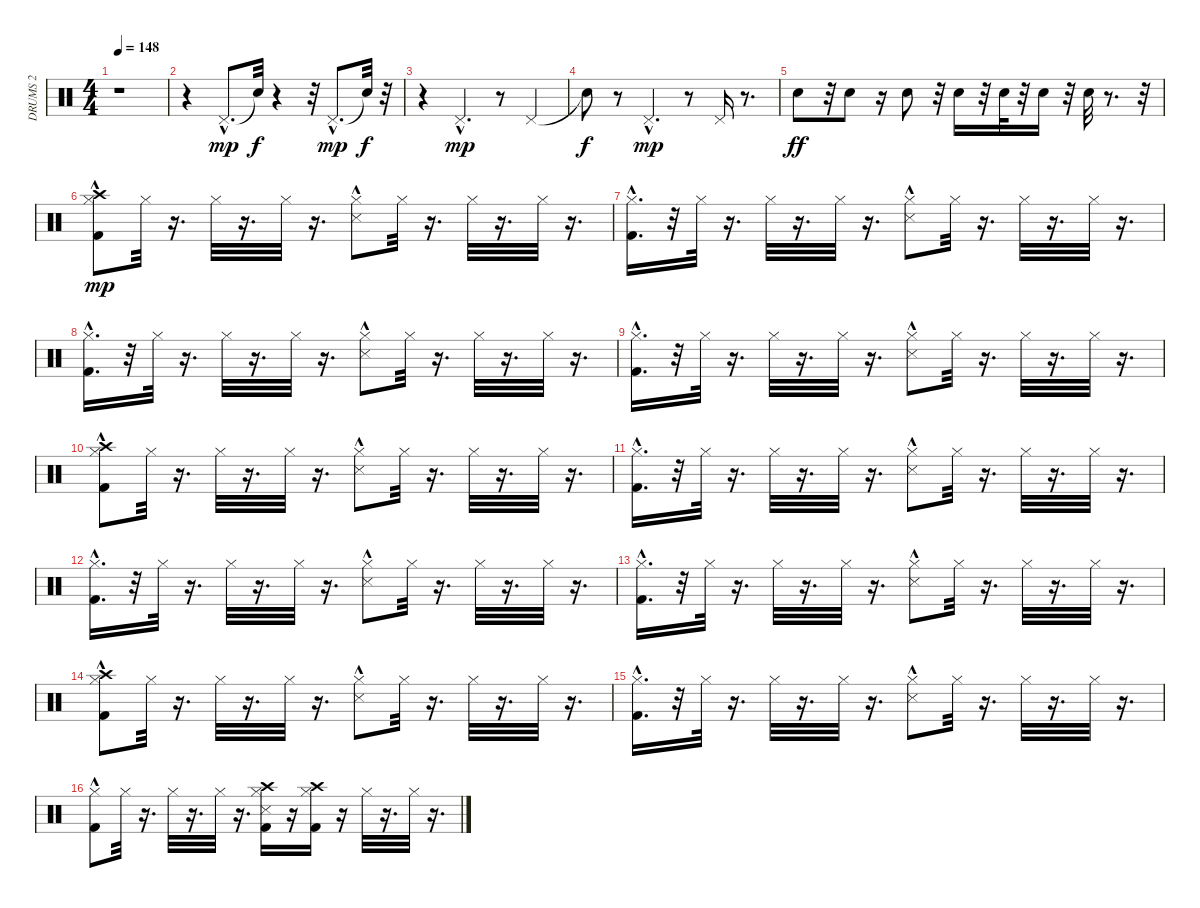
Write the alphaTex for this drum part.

\track ("DRUMS 2" "DRUMS 2") {instrument percussion}
\staff {score}
\articulation defaults
\ts (4 4)
\tempo 148
\clef neutral
\ks c
r.1{dy f} |
r.4 "Pedal Hi-Hat (hit)"{hac}.8{d dy mp} "Snare (hit)"{t}.32{dy f} r.4 r.32 "Pedal Hi-Hat (hit)"{hac}.8{d dy mp} "Snare (hit)"{t}.32{dy f} r.32 |
r.4 "Pedal Hi-Hat (hit)"{hac}.4{d dy mp} r.8 "Pedal Hi-Hat (hit)".4 |
"Snare (hit)"{t}.8{dy f} r.8 "Pedal Hi-Hat (hit)"{hac}.4{d dy mp} r.8 "Pedal Hi-Hat (hit)".16 r.8{d} |
"Snare (hit) 2".8{dy ff} r.32 "Snare (hit) 2".8 r.16 "Snare (hit) 2".8 r.32 "Snare (hit) 2".16 r.32 "Snare (hit) 2".32 r.32 "Snare (hit) 2".16 r.32 "Snare (hit) 2".32 r.8{d} r.32 |
("Kick (hit) 2"{hac} "Hi-Hat (closed)" "Crash high (hit)"{hac}).8{dy mp} "Hi-Hat (closed)".32 r.16{d} "Hi-Hat (closed)".32 r.16{d} "Hi-Hat (closed)".32 r.16{d} ("Snare (side stick) 3"{hac} "Hi-Hat (closed)").8 "Hi-Hat (closed)".32 r.16{d} "Hi-Hat (closed)".32 r.16{d} "Hi-Hat (closed)".32 r.16{d} |
("Kick (hit) 2"{hac} "Hi-Hat (closed)").16{d} r.32 "Hi-Hat (closed)".32 r.16{d} "Hi-Hat (closed)".32 r.16{d} "Hi-Hat (closed)".32 r.16{d} ("Snare (side stick) 3"{hac} "Hi-Hat (closed)").8 "Hi-Hat (closed)".32 r.16{d} "Hi-Hat (closed)".32 r.16{d} "Hi-Hat (closed)".32 r.16{d} |
("Kick (hit) 2"{hac} "Hi-Hat (closed)").16{d} r.32 "Hi-Hat (closed)".32 r.16{d} "Hi-Hat (closed)".32 r.16{d} "Hi-Hat (closed)".32 r.16{d} ("Snare (side stick) 3"{hac} "Hi-Hat (closed)").8 "Hi-Hat (closed)".32 r.16{d} "Hi-Hat (closed)".32 r.16{d} "Hi-Hat (closed)".32 r.16{d} |
("Kick (hit) 2"{hac} "Hi-Hat (closed)").16{d} r.32 "Hi-Hat (closed)".32 r.16{d} "Hi-Hat (closed)".32 r.16{d} "Hi-Hat (closed)".32 r.16{d} ("Snare (side stick) 3"{hac} "Hi-Hat (closed)").8 "Hi-Hat (closed)".32 r.16{d} "Hi-Hat (closed)".32 r.16{d} "Hi-Hat (closed)".32 r.16{d} |
("Kick (hit) 2"{hac} "Hi-Hat (closed)" "Crash high (hit)"{hac}).8 "Hi-Hat (closed)".32 r.16{d} "Hi-Hat (closed)".32 r.16{d} "Hi-Hat (closed)".32 r.16{d} ("Snare (side stick) 3"{hac} "Hi-Hat (closed)").8 "Hi-Hat (closed)".32 r.16{d} "Hi-Hat (closed)".32 r.16{d} "Hi-Hat (closed)".32 r.16{d} |
("Kick (hit) 2"{hac} "Hi-Hat (closed)").16{d} r.32 "Hi-Hat (closed)".32 r.16{d} "Hi-Hat (closed)".32 r.16{d} "Hi-Hat (closed)".32 r.16{d} ("Snare (side stick) 3"{hac} "Hi-Hat (closed)").8 "Hi-Hat (closed)".32 r.16{d} "Hi-Hat (closed)".32 r.16{d} "Hi-Hat (closed)".32 r.16{d} |
("Kick (hit) 2"{hac} "Hi-Hat (closed)").16{d} r.32 "Hi-Hat (closed)".32 r.16{d} "Hi-Hat (closed)".32 r.16{d} "Hi-Hat (closed)".32 r.16{d} ("Snare (side stick) 3"{hac} "Hi-Hat (closed)").8 "Hi-Hat (closed)".32 r.16{d} "Hi-Hat (closed)".32 r.16{d} "Hi-Hat (closed)".32 r.16{d} |
("Kick (hit) 2"{hac} "Hi-Hat (closed)").16{d} r.32 "Hi-Hat (closed)".32 r.16{d} "Hi-Hat (closed)".32 r.16{d} "Hi-Hat (closed)".32 r.16{d} ("Snare (side stick) 3"{hac} "Hi-Hat (closed)").8 "Hi-Hat (closed)".32 r.16{d} "Hi-Hat (closed)".32 r.16{d} "Hi-Hat (closed)".32 r.16{d} |
("Kick (hit) 2"{hac} "Hi-Hat (closed)" "Crash high (hit)"{hac}).8 "Hi-Hat (closed)".32 r.16{d} "Hi-Hat (closed)".32 r.16{d} "Hi-Hat (closed)".32 r.16{d} ("Snare (side stick) 3"{hac} "Hi-Hat (closed)").8 "Hi-Hat (closed)".32 r.16{d} "Hi-Hat (closed)".32 r.16{d} "Hi-Hat (closed)".32 r.16{d} |
("Kick (hit) 2"{hac} "Hi-Hat (closed)").16{d} r.32 "Hi-Hat (closed)".32 r.16{d} "Hi-Hat (closed)".32 r.16{d} "Hi-Hat (closed)".32 r.16{d} ("Snare (side stick) 3"{hac} "Hi-Hat (closed)").8 "Hi-Hat (closed)".32 r.16{d} "Hi-Hat (closed)".32 r.16{d} "Hi-Hat (closed)".32 r.16{d} |
("Kick (hit) 2"{hac} "Hi-Hat (closed)").8 "Hi-Hat (closed)".32 r.16{d} "Hi-Hat (closed)".32 r.16{d} "Hi-Hat (closed)".32 r.16{d} ("Snare (side stick) 3" "Kick (hit) 2" "Hi-Hat (closed)" "Crash high (hit)").16 r.16 ("Kick (hit) 2" "Hi-Hat (closed)" "Crash high (hit)").16 r.16 "Hi-Hat (closed)".32 r.16{d} "Hi-Hat (closed)".32 r.16{d}
